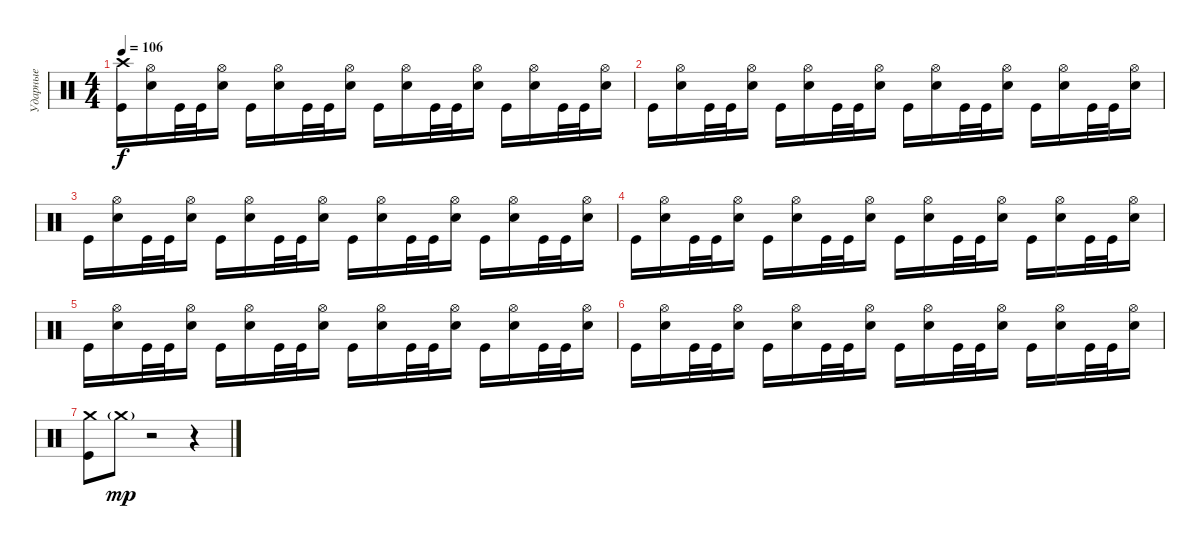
\track ("Ударные" "Ударные") {instrument percussion}
\staff {score}
\articulation defaults
\ts (4 4)
\tempo 106
\clef neutral
\ks c
("Crash high (hit)" "Kick (hit)").16{dy f} ("Hi-Hat (open)" "Snare (hit) 2").16 "Kick (hit)".32 "Kick (hit)".32 ("Hi-Hat (open)" "Snare (hit) 2").16 "Kick (hit)".16 ("Hi-Hat (open)" "Snare (hit) 2").16 "Kick (hit)".32 "Kick (hit)".32 ("Hi-Hat (open)" "Snare (hit) 2").16 "Kick (hit)".16 ("Hi-Hat (open)" "Snare (hit) 2").16 "Kick (hit)".32 "Kick (hit)".32 ("Hi-Hat (open)" "Snare (hit) 2").16 "Kick (hit)".16 ("Hi-Hat (open)" "Snare (hit) 2").16 "Kick (hit)".32 "Kick (hit)".32 ("Hi-Hat (open)" "Snare (hit) 2").16 |
"Kick (hit)".16 ("Hi-Hat (open)" "Snare (hit) 2").16 "Kick (hit)".32 "Kick (hit)".32 ("Hi-Hat (open)" "Snare (hit) 2").16 "Kick (hit)".16 ("Hi-Hat (open)" "Snare (hit) 2").16 "Kick (hit)".32 "Kick (hit)".32 ("Hi-Hat (open)" "Snare (hit) 2").16 "Kick (hit)".16 ("Hi-Hat (open)" "Snare (hit) 2").16 "Kick (hit)".32 "Kick (hit)".32 ("Hi-Hat (open)" "Snare (hit) 2").16 "Kick (hit)".16 ("Hi-Hat (open)" "Snare (hit) 2").16 "Kick (hit)".32 "Kick (hit)".32 ("Hi-Hat (open)" "Snare (hit) 2").16 |
"Kick (hit)".16 ("Hi-Hat (open)" "Snare (hit) 2").16 "Kick (hit)".32 "Kick (hit)".32 ("Hi-Hat (open)" "Snare (hit) 2").16 "Kick (hit)".16 ("Hi-Hat (open)" "Snare (hit) 2").16 "Kick (hit)".32 "Kick (hit)".32 ("Hi-Hat (open)" "Snare (hit) 2").16 "Kick (hit)".16 ("Hi-Hat (open)" "Snare (hit) 2").16 "Kick (hit)".32 "Kick (hit)".32 ("Hi-Hat (open)" "Snare (hit) 2").16 "Kick (hit)".16 ("Hi-Hat (open)" "Snare (hit) 2").16 "Kick (hit)".32 "Kick (hit)".32 ("Hi-Hat (open)" "Snare (hit) 2").16 |
"Kick (hit)".16 ("Hi-Hat (open)" "Snare (hit) 2").16 "Kick (hit)".32 "Kick (hit)".32 ("Hi-Hat (open)" "Snare (hit) 2").16 "Kick (hit)".16 ("Hi-Hat (open)" "Snare (hit) 2").16 "Kick (hit)".32 "Kick (hit)".32 ("Hi-Hat (open)" "Snare (hit) 2").16 "Kick (hit)".16 ("Hi-Hat (open)" "Snare (hit) 2").16 "Kick (hit)".32 "Kick (hit)".32 ("Hi-Hat (open)" "Snare (hit) 2").16 "Kick (hit)".16 ("Hi-Hat (open)" "Snare (hit) 2").16 "Kick (hit)".32 "Kick (hit)".32 ("Hi-Hat (open)" "Snare (hit) 2").16 |
"Kick (hit)".16 ("Hi-Hat (open)" "Snare (hit) 2").16 "Kick (hit)".32 "Kick (hit)".32 ("Hi-Hat (open)" "Snare (hit) 2").16 "Kick (hit)".16 ("Hi-Hat (open)" "Snare (hit) 2").16 "Kick (hit)".32 "Kick (hit)".32 ("Hi-Hat (open)" "Snare (hit) 2").16 "Kick (hit)".16 ("Hi-Hat (open)" "Snare (hit) 2").16 "Kick (hit)".32 "Kick (hit)".32 ("Hi-Hat (open)" "Snare (hit) 2").16 "Kick (hit)".16 ("Hi-Hat (open)" "Snare (hit) 2").16 "Kick (hit)".32 "Kick (hit)".32 ("Hi-Hat (open)" "Snare (hit) 2").16 |
"Kick (hit)".16 ("Hi-Hat (open)" "Snare (hit) 2").16 "Kick (hit)".32 "Kick (hit)".32 ("Hi-Hat (open)" "Snare (hit) 2").16 "Kick (hit)".16 ("Hi-Hat (open)" "Snare (hit) 2").16 "Kick (hit)".32 "Kick (hit)".32 ("Hi-Hat (open)" "Snare (hit) 2").16 "Kick (hit)".16 ("Hi-Hat (open)" "Snare (hit) 2").16 "Kick (hit)".32 "Kick (hit)".32 ("Hi-Hat (open)" "Snare (hit) 2").16 "Kick (hit)".16 ("Hi-Hat (open)" "Snare (hit) 2").16 "Kick (hit)".32 "Kick (hit)".32 ("Hi-Hat (open)" "Snare (hit) 2").16 |
("Crash medium (hit)" "Kick (hit)").8 "Crash medium (hit)"{g}.8{dy mp} r.2 r.4
